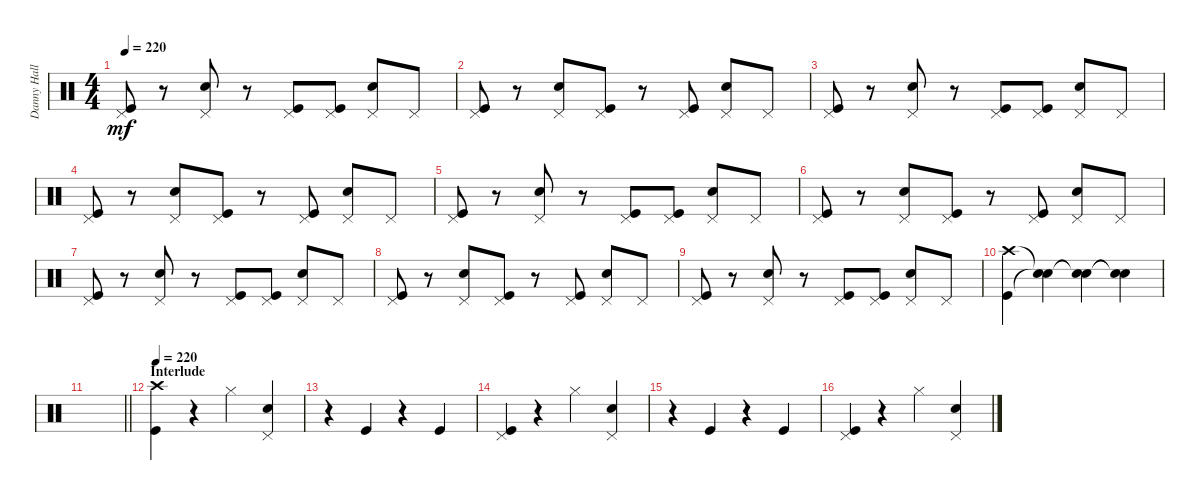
\track ("Danny Hall" "Danny Hall") {instrument percussion}
\staff {score}
\articulation defaults
\ts (4 4)
\tempo 220
\clef neutral
\ks c
("Pedal Hi-Hat (hit)" "Kick (hit)").8{dy mf} r.8 ("Pedal Hi-Hat (hit)" "Snare (hit) 2").8 r.8 ("Pedal Hi-Hat (hit)" "Kick (hit)").8 ("Pedal Hi-Hat (hit)" "Kick (hit)").8 ("Pedal Hi-Hat (hit)" "Snare (hit) 2").8 "Pedal Hi-Hat (hit)".8 |
("Pedal Hi-Hat (hit)" "Kick (hit)").8 r.8 ("Pedal Hi-Hat (hit)" "Snare (hit) 2").8 ("Pedal Hi-Hat (hit)" "Kick (hit)").8 r.8 ("Pedal Hi-Hat (hit)" "Kick (hit)").8 ("Pedal Hi-Hat (hit)" "Snare (hit) 2").8 "Pedal Hi-Hat (hit)".8 |
("Pedal Hi-Hat (hit)" "Kick (hit)").8 r.8 ("Pedal Hi-Hat (hit)" "Snare (hit) 2").8 r.8 ("Pedal Hi-Hat (hit)" "Kick (hit)").8 ("Pedal Hi-Hat (hit)" "Kick (hit)").8 ("Pedal Hi-Hat (hit)" "Snare (hit) 2").8 "Pedal Hi-Hat (hit)".8 |
("Pedal Hi-Hat (hit)" "Kick (hit)").8 r.8 ("Pedal Hi-Hat (hit)" "Snare (hit) 2").8 ("Pedal Hi-Hat (hit)" "Kick (hit)").8 r.8 ("Pedal Hi-Hat (hit)" "Kick (hit)").8 ("Pedal Hi-Hat (hit)" "Snare (hit) 2").8 "Pedal Hi-Hat (hit)".8 |
("Pedal Hi-Hat (hit)" "Kick (hit)").8 r.8 ("Pedal Hi-Hat (hit)" "Snare (hit) 2").8 r.8 ("Pedal Hi-Hat (hit)" "Kick (hit)").8 ("Pedal Hi-Hat (hit)" "Kick (hit)").8 ("Pedal Hi-Hat (hit)" "Snare (hit) 2").8 "Pedal Hi-Hat (hit)".8 |
("Pedal Hi-Hat (hit)" "Kick (hit)").8 r.8 ("Pedal Hi-Hat (hit)" "Snare (hit) 2").8 ("Pedal Hi-Hat (hit)" "Kick (hit)").8 r.8 ("Pedal Hi-Hat (hit)" "Kick (hit)").8 ("Pedal Hi-Hat (hit)" "Snare (hit) 2").8 "Pedal Hi-Hat (hit)".8 |
("Pedal Hi-Hat (hit)" "Kick (hit)").8 r.8 ("Pedal Hi-Hat (hit)" "Snare (hit) 2").8 r.8 ("Pedal Hi-Hat (hit)" "Kick (hit)").8 ("Pedal Hi-Hat (hit)" "Kick (hit)").8 ("Pedal Hi-Hat (hit)" "Snare (hit) 2").8 "Pedal Hi-Hat (hit)".8 |
("Pedal Hi-Hat (hit)" "Kick (hit)").8 r.8 ("Pedal Hi-Hat (hit)" "Snare (hit) 2").8 ("Pedal Hi-Hat (hit)" "Kick (hit)").8 r.8 ("Pedal Hi-Hat (hit)" "Kick (hit)").8 ("Pedal Hi-Hat (hit)" "Snare (hit) 2").8 "Pedal Hi-Hat (hit)".8 |
("Pedal Hi-Hat (hit)" "Kick (hit)").8 r.8 ("Pedal Hi-Hat (hit)" "Snare (hit) 2").8 r.8 ("Pedal Hi-Hat (hit)" "Kick (hit)").8 ("Pedal Hi-Hat (hit)" "Kick (hit)").8 ("Pedal Hi-Hat (hit)" "Snare (hit) 2").8 "Pedal Hi-Hat (hit)".8 |
("Crash high (hit)" "Kick (hit)").4 ("Snare (hit)"{t} "Snare (hit)"{t}).4 ("Snare (hit)"{t} "Snare (hit)"{t}).4 ("Snare (hit)"{t} "Snare (hit)"{t}).4 |
\barLineRight lightlight
|
\section ("" "Interlude")
\tempo 220
("Crash high (hit)" "Kick (hit)").4 r.4 "Hi-Hat (closed)".4 ("Pedal Hi-Hat (hit)" "Snare (hit) 2").4 |
r.4 "Kick (hit)".4 r.4 "Kick (hit)".4 |
("Pedal Hi-Hat (hit)" "Kick (hit)").4 r.4 "Hi-Hat (closed)".4 ("Pedal Hi-Hat (hit)" "Snare (hit) 2").4 |
r.4 "Kick (hit)".4 r.4 "Kick (hit)".4 |
("Pedal Hi-Hat (hit)" "Kick (hit)").4 r.4 "Hi-Hat (closed)".4 ("Pedal Hi-Hat (hit)" "Snare (hit) 2").4
